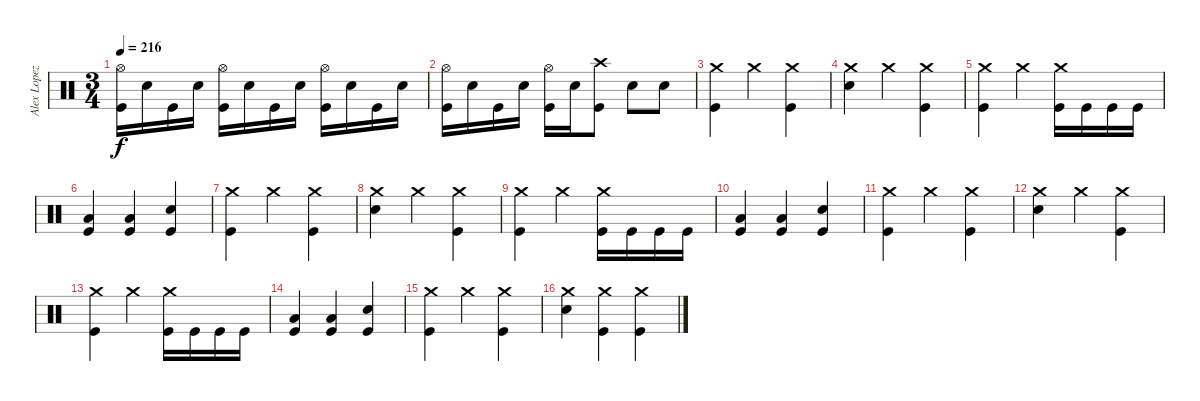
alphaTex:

\track ("Alex Lopez" "Alex Lopez") {instrument percussion}
\staff {score}
\articulation defaults
\ts (3 4)
\tempo 216
\clef neutral
\ks c
("Hi-Hat (open)" "Kick (hit)").16{dy f} "Electric Snare (hit)".16 "Kick (hit)".16 "Electric Snare (hit)".16 ("Hi-Hat (open)" "Kick (hit)").16 "Electric Snare (hit)".16 "Kick (hit)".16 "Electric Snare (hit)".16 ("Hi-Hat (open)" "Kick (hit)").16 "Electric Snare (hit)".16 "Kick (hit)".16 "Electric Snare (hit)".16 |
("Hi-Hat (open)" "Kick (hit)").16 "Electric Snare (hit)".16 "Kick (hit)".16 "Electric Snare (hit)".16 ("Hi-Hat (open)" "Kick (hit)").16 "Electric Snare (hit)".16 ("Crash high (hit)" "Kick (hit)").8 "Electric Snare (hit)".8 "Electric Snare (hit)".8 |
("Crash medium (hit)" "Kick (hit)").4 "Crash medium (hit)".4 ("Crash medium (hit)" "Kick (hit)").4 |
("Crash medium (hit)" "Electric Snare (hit)").4 "Crash medium (hit)".4 ("Crash medium (hit)" "Kick (hit)").4 |
("Crash medium (hit)" "Kick (hit)").4 "Crash medium (hit)".4 ("Crash medium (hit)" "Kick (hit)").16 "Kick (hit)".16 "Kick (hit)".16 "Kick (hit)".16 |
("Low Tom (hit)" "Kick (hit)").4 ("Low Floor Tom (hit)" "Kick (hit)").4 ("Electric Snare (hit)" "Kick (hit)").4 |
("Crash medium (hit)" "Kick (hit)").4 "Crash medium (hit)".4 ("Crash medium (hit)" "Kick (hit)").4 |
("Crash medium (hit)" "Electric Snare (hit)").4 "Crash medium (hit)".4 ("Crash medium (hit)" "Kick (hit)").4 |
("Crash medium (hit)" "Kick (hit)").4 "Crash medium (hit)".4 ("Crash medium (hit)" "Kick (hit)").16 "Kick (hit)".16 "Kick (hit)".16 "Kick (hit)".16 |
("Low Tom (hit)" "Kick (hit)").4 ("Low Floor Tom (hit)" "Kick (hit)").4 ("Electric Snare (hit)" "Kick (hit)").4 |
("Crash medium (hit)" "Kick (hit)").4 "Crash medium (hit)".4 ("Crash medium (hit)" "Kick (hit)").4 |
("Crash medium (hit)" "Electric Snare (hit)").4 "Crash medium (hit)".4 ("Crash medium (hit)" "Kick (hit)").4 |
("Crash medium (hit)" "Kick (hit)").4 "Crash medium (hit)".4 ("Crash medium (hit)" "Kick (hit)").16 "Kick (hit)".16 "Kick (hit)".16 "Kick (hit)".16 |
("Low Tom (hit)" "Kick (hit)").4 ("Low Floor Tom (hit)" "Kick (hit)").4 ("Electric Snare (hit)" "Kick (hit)").4 |
("Crash medium (hit)" "Kick (hit)").4 "Crash medium (hit)".4 ("Crash medium (hit)" "Kick (hit)").4 |
("Crash medium (hit)" "Electric Snare (hit)").4 ("Crash medium (hit)" "Kick (hit)").4 ("Crash medium (hit)" "Kick (hit)").4
